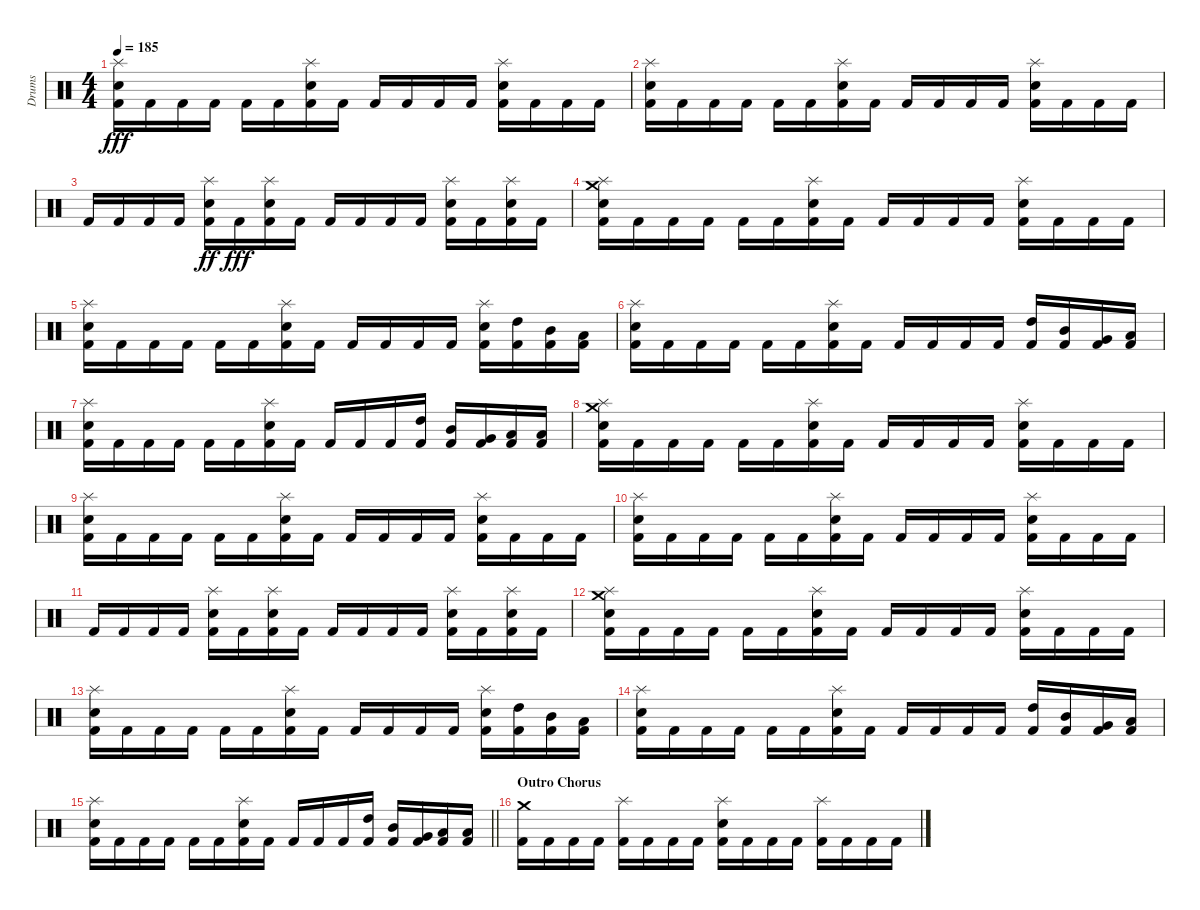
\track ("Drums" "Drums") {instrument percussion}
\staff {score}
\articulation defaults
\ts (4 4)
\tempo 185
\clef neutral
\ks c
("Splash (hit)" "Electric Snare (hit)" "Kick (hit) 2").16{dy fff} "Kick (hit) 2".16 "Kick (hit) 2".16 "Kick (hit) 2".16 "Kick (hit) 2".16 "Kick (hit) 2".16 ("Splash (hit)" "Electric Snare (hit)" "Kick (hit) 2").16 "Kick (hit) 2".16 "Kick (hit) 2".16 "Kick (hit) 2".16 "Kick (hit) 2".16 "Kick (hit) 2".16 ("Splash (hit)" "Electric Snare (hit)" "Kick (hit) 2").16 "Kick (hit) 2".16 "Kick (hit) 2".16 "Kick (hit) 2".16 |
("Splash (hit)" "Electric Snare (hit)" "Kick (hit) 2").16 "Kick (hit) 2".16 "Kick (hit) 2".16 "Kick (hit) 2".16 "Kick (hit) 2".16 "Kick (hit) 2".16 ("Splash (hit)" "Electric Snare (hit)" "Kick (hit) 2").16 "Kick (hit) 2".16 "Kick (hit) 2".16 "Kick (hit) 2".16 "Kick (hit) 2".16 "Kick (hit) 2".16 ("Splash (hit)" "Electric Snare (hit)" "Kick (hit) 2").16 "Kick (hit) 2".16 "Kick (hit) 2".16 "Kick (hit) 2".16 |
"Kick (hit) 2".16 "Kick (hit) 2".16 "Kick (hit) 2".16 "Kick (hit) 2".16 ("Splash (hit)" "Electric Snare (hit)" "Kick (hit) 2").16{dy ff} "Kick (hit) 2".16{dy fff} ("Splash (hit)" "Electric Snare (hit)" "Kick (hit) 2").16 "Kick (hit) 2".16 "Kick (hit) 2".16 "Kick (hit) 2".16 "Kick (hit) 2".16 "Kick (hit) 2".16 ("Splash (hit)" "Electric Snare (hit)" "Kick (hit) 2").16 "Kick (hit) 2".16 ("Splash (hit)" "Electric Snare (hit)" "Kick (hit) 2").16 "Kick (hit) 2".16 |
("Crash medium (hit)" "Splash (hit)" "Electric Snare (hit)" "Kick (hit) 2").16 "Kick (hit) 2".16 "Kick (hit) 2".16 "Kick (hit) 2".16 "Kick (hit) 2".16 "Kick (hit) 2".16 ("Splash (hit)" "Electric Snare (hit)" "Kick (hit) 2").16 "Kick (hit) 2".16 "Kick (hit) 2".16 "Kick (hit) 2".16 "Kick (hit) 2".16 "Kick (hit) 2".16 ("Splash (hit)" "Electric Snare (hit)" "Kick (hit) 2").16 "Kick (hit) 2".16 "Kick (hit) 2".16 "Kick (hit) 2".16 |
("Splash (hit)" "Electric Snare (hit)" "Kick (hit) 2").16 "Kick (hit) 2".16 "Kick (hit) 2".16 "Kick (hit) 2".16 "Kick (hit) 2".16 "Kick (hit) 2".16 ("Splash (hit)" "Electric Snare (hit)" "Kick (hit) 2").16 "Kick (hit) 2".16 "Kick (hit) 2".16 "Kick (hit) 2".16 "Kick (hit) 2".16 "Kick (hit) 2".16 ("Splash (hit)" "Electric Snare (hit)" "Kick (hit) 2").16 ("High Tom (hit)" "Kick (hit) 2").16 ("Mid Tom (hit)" "Kick (hit) 2").16 ("Low Tom (hit)" "Kick (hit) 2").16 |
("Splash (hit)" "Electric Snare (hit)" "Kick (hit) 2").16 "Kick (hit) 2".16 "Kick (hit) 2".16 "Kick (hit) 2".16 "Kick (hit) 2".16 "Kick (hit) 2".16 ("Splash (hit)" "Electric Snare (hit)" "Kick (hit) 2").16 "Kick (hit) 2".16 "Kick (hit) 2".16 "Kick (hit) 2".16 "Kick (hit) 2".16 "Kick (hit) 2".16 ("High Tom (hit)" "Kick (hit) 2").16 ("Mid Tom (hit)" "Kick (hit) 2").16 ("Very Low Tom (hit)" "Kick (hit) 2").16 ("Low Tom (hit)" "Kick (hit) 2").16 |
("Splash (hit)" "Electric Snare (hit)" "Kick (hit) 2").16 "Kick (hit) 2".16 "Kick (hit) 2".16 "Kick (hit) 2".16 "Kick (hit) 2".16 "Kick (hit) 2".16 ("Splash (hit)" "Electric Snare (hit)" "Kick (hit) 2").16 "Kick (hit) 2".16 "Kick (hit) 2".16 "Kick (hit) 2".16 "Kick (hit) 2".16 ("High Tom (hit)" "Kick (hit) 2").16 ("Mid Tom (hit)" "Kick (hit) 2").16 ("Very Low Tom (hit)" "Kick (hit) 2").16 ("Low Tom (hit)" "Kick (hit) 2").16 ("Low Floor Tom (hit)" "Kick (hit) 2").16 |
("Crash medium (hit)" "Splash (hit)" "Electric Snare (hit)" "Kick (hit) 2").16 "Kick (hit) 2".16 "Kick (hit) 2".16 "Kick (hit) 2".16 "Kick (hit) 2".16 "Kick (hit) 2".16 ("Splash (hit)" "Electric Snare (hit)" "Kick (hit) 2").16 "Kick (hit) 2".16 "Kick (hit) 2".16 "Kick (hit) 2".16 "Kick (hit) 2".16 "Kick (hit) 2".16 ("Splash (hit)" "Electric Snare (hit)" "Kick (hit) 2").16 "Kick (hit) 2".16 "Kick (hit) 2".16 "Kick (hit) 2".16 |
("Splash (hit)" "Electric Snare (hit)" "Kick (hit) 2").16 "Kick (hit) 2".16 "Kick (hit) 2".16 "Kick (hit) 2".16 "Kick (hit) 2".16 "Kick (hit) 2".16 ("Splash (hit)" "Electric Snare (hit)" "Kick (hit) 2").16 "Kick (hit) 2".16 "Kick (hit) 2".16 "Kick (hit) 2".16 "Kick (hit) 2".16 "Kick (hit) 2".16 ("Splash (hit)" "Electric Snare (hit)" "Kick (hit) 2").16 "Kick (hit) 2".16 "Kick (hit) 2".16 "Kick (hit) 2".16 |
("Splash (hit)" "Electric Snare (hit)" "Kick (hit) 2").16 "Kick (hit) 2".16 "Kick (hit) 2".16 "Kick (hit) 2".16 "Kick (hit) 2".16 "Kick (hit) 2".16 ("Splash (hit)" "Electric Snare (hit)" "Kick (hit) 2").16 "Kick (hit) 2".16 "Kick (hit) 2".16 "Kick (hit) 2".16 "Kick (hit) 2".16 "Kick (hit) 2".16 ("Splash (hit)" "Electric Snare (hit)" "Kick (hit) 2").16 "Kick (hit) 2".16 "Kick (hit) 2".16 "Kick (hit) 2".16 |
"Kick (hit) 2".16 "Kick (hit) 2".16 "Kick (hit) 2".16 "Kick (hit) 2".16 ("Splash (hit)" "Electric Snare (hit)" "Kick (hit) 2").16 "Kick (hit) 2".16 ("Splash (hit)" "Electric Snare (hit)" "Kick (hit) 2").16 "Kick (hit) 2".16 "Kick (hit) 2".16 "Kick (hit) 2".16 "Kick (hit) 2".16 "Kick (hit) 2".16 ("Splash (hit)" "Electric Snare (hit)" "Kick (hit) 2").16 "Kick (hit) 2".16 ("Splash (hit)" "Electric Snare (hit)" "Kick (hit) 2").16 "Kick (hit) 2".16 |
("Crash medium (hit)" "Splash (hit)" "Electric Snare (hit)" "Kick (hit) 2").16 "Kick (hit) 2".16 "Kick (hit) 2".16 "Kick (hit) 2".16 "Kick (hit) 2".16 "Kick (hit) 2".16 ("Splash (hit)" "Electric Snare (hit)" "Kick (hit) 2").16 "Kick (hit) 2".16 "Kick (hit) 2".16 "Kick (hit) 2".16 "Kick (hit) 2".16 "Kick (hit) 2".16 ("Splash (hit)" "Electric Snare (hit)" "Kick (hit) 2").16 "Kick (hit) 2".16 "Kick (hit) 2".16 "Kick (hit) 2".16 |
("Splash (hit)" "Electric Snare (hit)" "Kick (hit) 2").16 "Kick (hit) 2".16 "Kick (hit) 2".16 "Kick (hit) 2".16 "Kick (hit) 2".16 "Kick (hit) 2".16 ("Splash (hit)" "Electric Snare (hit)" "Kick (hit) 2").16 "Kick (hit) 2".16 "Kick (hit) 2".16 "Kick (hit) 2".16 "Kick (hit) 2".16 "Kick (hit) 2".16 ("Splash (hit)" "Electric Snare (hit)" "Kick (hit) 2").16 ("High Tom (hit)" "Kick (hit) 2").16 ("Mid Tom (hit)" "Kick (hit) 2").16 ("Low Tom (hit)" "Kick (hit) 2").16 |
("Splash (hit)" "Electric Snare (hit)" "Kick (hit) 2").16 "Kick (hit) 2".16 "Kick (hit) 2".16 "Kick (hit) 2".16 "Kick (hit) 2".16 "Kick (hit) 2".16 ("Splash (hit)" "Electric Snare (hit)" "Kick (hit) 2").16 "Kick (hit) 2".16 "Kick (hit) 2".16 "Kick (hit) 2".16 "Kick (hit) 2".16 "Kick (hit) 2".16 ("High Tom (hit)" "Kick (hit) 2").16 ("Mid Tom (hit)" "Kick (hit) 2").16 ("Very Low Tom (hit)" "Kick (hit) 2").16 ("Low Tom (hit)" "Kick (hit) 2").16 |
\barLineRight lightlight
("Splash (hit)" "Electric Snare (hit)" "Kick (hit) 2").16 "Kick (hit) 2".16 "Kick (hit) 2".16 "Kick (hit) 2".16 "Kick (hit) 2".16 "Kick (hit) 2".16 ("Splash (hit)" "Electric Snare (hit)" "Kick (hit) 2").16 "Kick (hit) 2".16 "Kick (hit) 2".16 "Kick (hit) 2".16 "Kick (hit) 2".16 ("High Tom (hit)" "Kick (hit) 2").16 ("Mid Tom (hit)" "Kick (hit) 2").16 ("Very Low Tom (hit)" "Kick (hit) 2").16 ("Low Tom (hit)" "Kick (hit) 2").16 ("Low Floor Tom (hit)" "Kick (hit) 2").16 |
\section ("" "Outro Chorus")
("Crash medium (hit)" "Kick (hit) 2").16 "Kick (hit) 2".16 "Kick (hit) 2".16 "Kick (hit) 2".16 ("Splash (hit)" "Kick (hit) 2").16 "Kick (hit) 2".16 "Kick (hit) 2".16 "Kick (hit) 2".16 ("Splash (hit)" "Electric Snare (hit)" "Kick (hit) 2").16 "Kick (hit) 2".16 "Kick (hit) 2".16 "Kick (hit) 2".16 ("Splash (hit)" "Kick (hit) 2").16 "Kick (hit) 2".16 "Kick (hit) 2".16 "Kick (hit) 2".16
